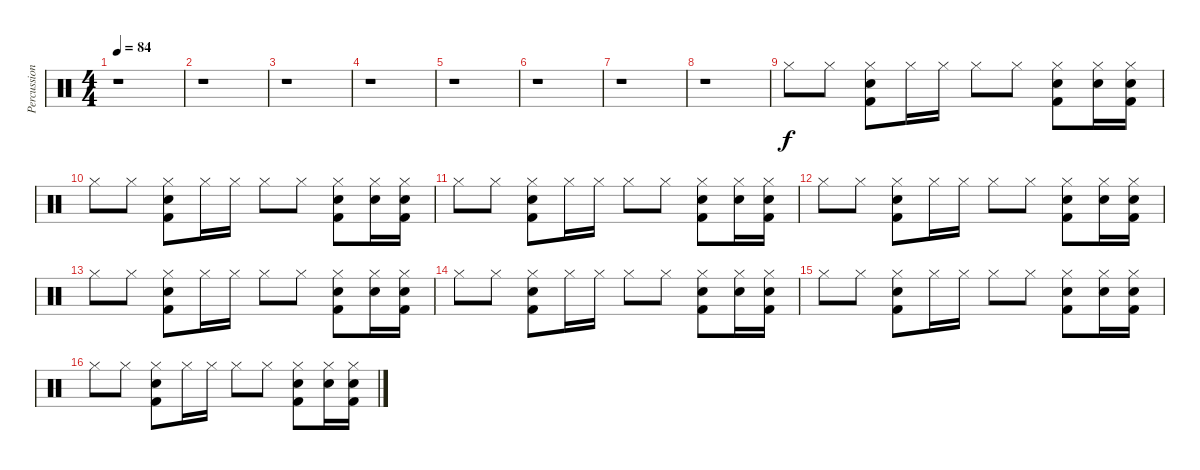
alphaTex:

\track ("Percussion" "Percussion") {instrument percussion}
\staff {score}
\articulation defaults
\ts (4 4)
\tempo 84
\clef neutral
\ks c
r.1{dy f} |
r.1 |
r.1 |
r.1 |
r.1 |
r.1 |
r.1 |
r.1 |
"Hi-Hat (closed)".8 "Hi-Hat (closed)".8 ("Hi-Hat (closed)" "Snare (hit) 2" "Kick (hit) 2").8 "Hi-Hat (closed)".16 "Hi-Hat (closed)".16 "Hi-Hat (closed)".8 "Hi-Hat (closed)".8 ("Hi-Hat (closed)" "Snare (hit) 2" "Kick (hit) 2").8 ("Hi-Hat (closed)" "Snare (hit) 2").16 ("Hi-Hat (closed)" "Snare (hit) 2" "Kick (hit) 2").16 |
"Hi-Hat (closed)".8 "Hi-Hat (closed)".8 ("Hi-Hat (closed)" "Snare (hit) 2" "Kick (hit) 2").8 "Hi-Hat (closed)".16 "Hi-Hat (closed)".16 "Hi-Hat (closed)".8 "Hi-Hat (closed)".8 ("Hi-Hat (closed)" "Snare (hit) 2" "Kick (hit) 2").8 ("Hi-Hat (closed)" "Snare (hit) 2").16 ("Hi-Hat (closed)" "Snare (hit) 2" "Kick (hit) 2").16 |
"Hi-Hat (closed)".8 "Hi-Hat (closed)".8 ("Hi-Hat (closed)" "Snare (hit) 2" "Kick (hit) 2").8 "Hi-Hat (closed)".16 "Hi-Hat (closed)".16 "Hi-Hat (closed)".8 "Hi-Hat (closed)".8 ("Hi-Hat (closed)" "Snare (hit) 2" "Kick (hit) 2").8 ("Hi-Hat (closed)" "Snare (hit) 2").16 ("Hi-Hat (closed)" "Snare (hit) 2" "Kick (hit) 2").16 |
"Hi-Hat (closed)".8 "Hi-Hat (closed)".8 ("Hi-Hat (closed)" "Snare (hit) 2" "Kick (hit) 2").8 "Hi-Hat (closed)".16 "Hi-Hat (closed)".16 "Hi-Hat (closed)".8 "Hi-Hat (closed)".8 ("Hi-Hat (closed)" "Snare (hit) 2" "Kick (hit) 2").8 ("Hi-Hat (closed)" "Snare (hit) 2").16 ("Hi-Hat (closed)" "Snare (hit) 2" "Kick (hit) 2").16 |
"Hi-Hat (closed)".8 "Hi-Hat (closed)".8 ("Hi-Hat (closed)" "Snare (hit) 2" "Kick (hit) 2").8 "Hi-Hat (closed)".16 "Hi-Hat (closed)".16 "Hi-Hat (closed)".8 "Hi-Hat (closed)".8 ("Hi-Hat (closed)" "Snare (hit) 2" "Kick (hit) 2").8 ("Hi-Hat (closed)" "Snare (hit) 2").16 ("Hi-Hat (closed)" "Snare (hit) 2" "Kick (hit) 2").16 |
"Hi-Hat (closed)".8 "Hi-Hat (closed)".8 ("Hi-Hat (closed)" "Snare (hit) 2" "Kick (hit) 2").8 "Hi-Hat (closed)".16 "Hi-Hat (closed)".16 "Hi-Hat (closed)".8 "Hi-Hat (closed)".8 ("Hi-Hat (closed)" "Snare (hit) 2" "Kick (hit) 2").8 ("Hi-Hat (closed)" "Snare (hit) 2").16 ("Hi-Hat (closed)" "Snare (hit) 2" "Kick (hit) 2").16 |
"Hi-Hat (closed)".8 "Hi-Hat (closed)".8 ("Hi-Hat (closed)" "Snare (hit) 2" "Kick (hit) 2").8 "Hi-Hat (closed)".16 "Hi-Hat (closed)".16 "Hi-Hat (closed)".8 "Hi-Hat (closed)".8 ("Hi-Hat (closed)" "Snare (hit) 2" "Kick (hit) 2").8 ("Hi-Hat (closed)" "Snare (hit) 2").16 ("Hi-Hat (closed)" "Snare (hit) 2" "Kick (hit) 2").16 |
"Hi-Hat (closed)".8 "Hi-Hat (closed)".8 ("Hi-Hat (closed)" "Snare (hit) 2" "Kick (hit) 2").8 "Hi-Hat (closed)".16 "Hi-Hat (closed)".16 "Hi-Hat (closed)".8 "Hi-Hat (closed)".8 ("Hi-Hat (closed)" "Snare (hit) 2" "Kick (hit) 2").8 ("Hi-Hat (closed)" "Snare (hit) 2").16 ("Hi-Hat (closed)" "Snare (hit) 2" "Kick (hit) 2").16
